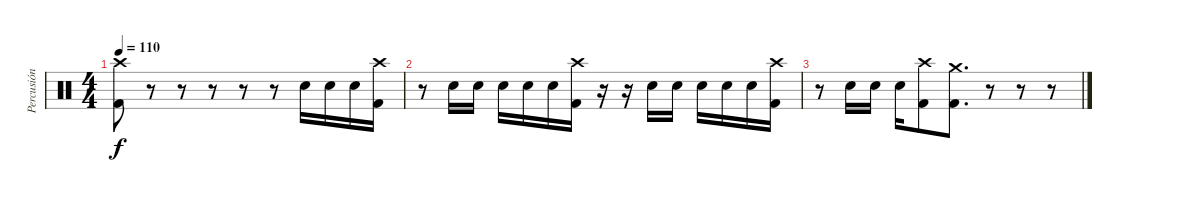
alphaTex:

\track ("Percusión" "Percusión") {instrument percussion}
\staff {score}
\articulation defaults
\ts (4 4)
\tempo 110
\clef neutral
\ks c
("Crash high (hit)" "Kick (hit) 2").8{dy f} r.8 r.8 r.8 r.8 r.8 "Electric Snare (hit)".16 "Electric Snare (hit)".16 "Electric Snare (hit)".16 ("Crash high (hit)" "Kick (hit) 2").16 |
r.8 "Electric Snare (hit)".16 "Electric Snare (hit)".16 "Electric Snare (hit)".16 "Electric Snare (hit)".16 "Electric Snare (hit)".16 ("Crash high (hit)" "Kick (hit) 2").16 r.16 r.16 "Electric Snare (hit)".16 "Electric Snare (hit)".16 "Electric Snare (hit)".16 "Electric Snare (hit)".16 "Electric Snare (hit)".16 ("Crash high (hit)" "Kick (hit) 2").16 |
r.8 "Electric Snare (hit)".16 "Electric Snare (hit)".16 "Electric Snare (hit)".16 ("Crash high (hit)" "Kick (hit) 2").8 ("Crash medium (hit)" "Kick (hit) 2").8{d} r.8 r.8 r.8
